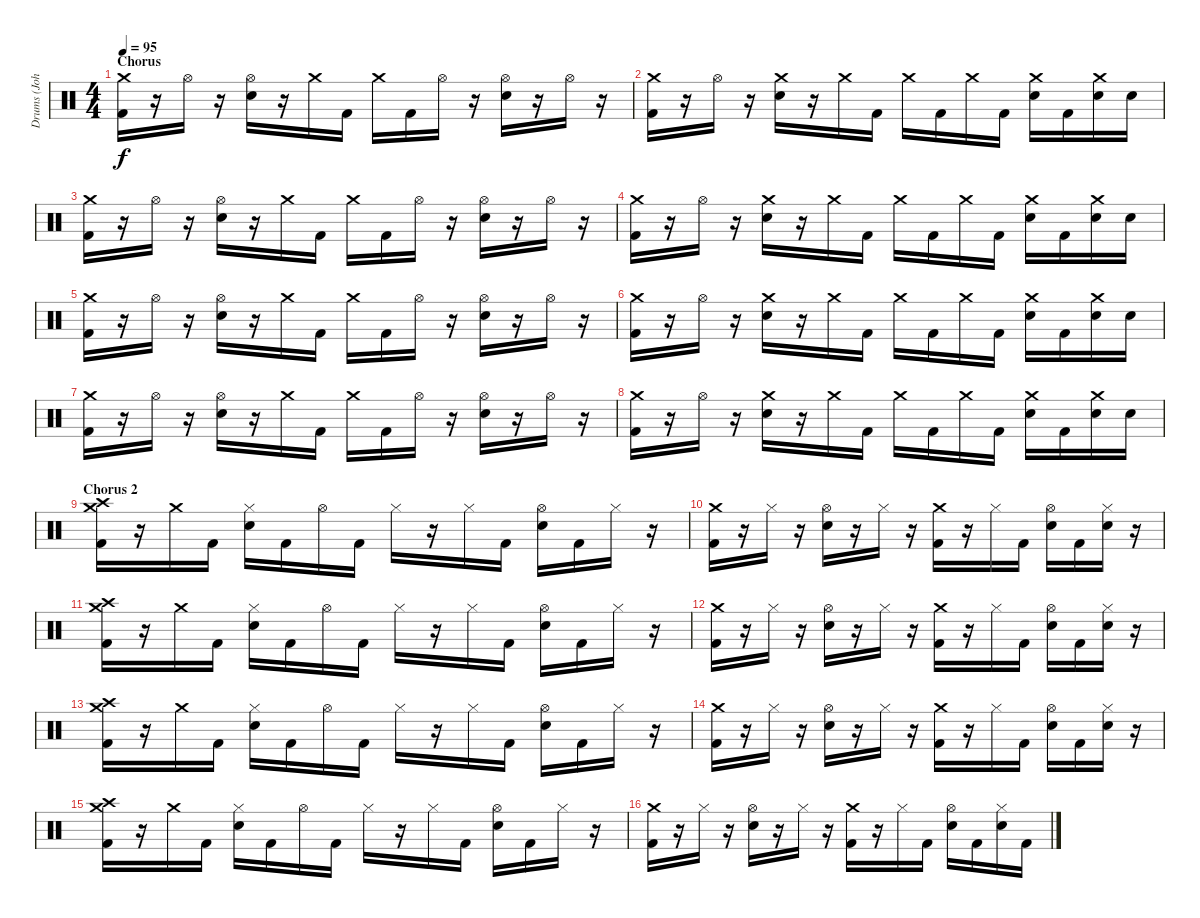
\track ("Drums (John Otto)" "Drums (Joh") {instrument percussion}
\staff {score}
\articulation defaults
\ts (4 4)
\section ("" "Chorus")
\tempo 95
\clef neutral
\ks c
("Crash medium (hit)" "Kick (hit) 2").16{dy f} r.16 "Hi-Hat (open)".16 r.16 ("Hi-Hat (open)" "Electric Snare (hit)").16 r.16 "Crash medium (hit)".16 "Kick (hit) 2".16 "Crash medium (hit)".16 "Kick (hit) 2".16 "Hi-Hat (open)".16 r.16 ("Hi-Hat (open)" "Electric Snare (hit)").16 r.16 "Hi-Hat (open)".16 r.16 |
("Crash medium (hit)" "Kick (hit) 2").16 r.16 "Hi-Hat (open)".16 r.16 ("Crash medium (hit)" "Electric Snare (hit)").16 r.16 "Crash medium (hit)".16 "Kick (hit) 2".16 "Crash medium (hit)".16 "Kick (hit) 2".16 "Crash medium (hit)".16 "Kick (hit) 2".16 ("Crash medium (hit)" "Electric Snare (hit)").16 "Kick (hit) 2".16 ("Crash medium (hit)" "Electric Snare (hit)").16 "Electric Snare (hit)".16 |
("Crash medium (hit)" "Kick (hit) 2").16 r.16 "Hi-Hat (open)".16 r.16 ("Hi-Hat (open)" "Electric Snare (hit)").16 r.16 "Crash medium (hit)".16 "Kick (hit) 2".16 "Crash medium (hit)".16 "Kick (hit) 2".16 "Hi-Hat (open)".16 r.16 ("Hi-Hat (open)" "Electric Snare (hit)").16 r.16 "Hi-Hat (open)".16 r.16 |
("Crash medium (hit)" "Kick (hit) 2").16 r.16 "Hi-Hat (open)".16 r.16 ("Crash medium (hit)" "Electric Snare (hit)").16 r.16 "Crash medium (hit)".16 "Kick (hit) 2".16 "Crash medium (hit)".16 "Kick (hit) 2".16 "Crash medium (hit)".16 "Kick (hit) 2".16 ("Crash medium (hit)" "Electric Snare (hit)").16 "Kick (hit) 2".16 ("Crash medium (hit)" "Electric Snare (hit)").16 "Electric Snare (hit)".16 |
("Crash medium (hit)" "Kick (hit) 2").16 r.16 "Hi-Hat (open)".16 r.16 ("Hi-Hat (open)" "Electric Snare (hit)").16 r.16 "Crash medium (hit)".16 "Kick (hit) 2".16 "Crash medium (hit)".16 "Kick (hit) 2".16 "Hi-Hat (open)".16 r.16 ("Hi-Hat (open)" "Electric Snare (hit)").16 r.16 "Hi-Hat (open)".16 r.16 |
("Crash medium (hit)" "Kick (hit) 2").16 r.16 "Hi-Hat (open)".16 r.16 ("Crash medium (hit)" "Electric Snare (hit)").16 r.16 "Crash medium (hit)".16 "Kick (hit) 2".16 "Crash medium (hit)".16 "Kick (hit) 2".16 "Crash medium (hit)".16 "Kick (hit) 2".16 ("Crash medium (hit)" "Electric Snare (hit)").16 "Kick (hit) 2".16 ("Crash medium (hit)" "Electric Snare (hit)").16 "Electric Snare (hit)".16 |
("Crash medium (hit)" "Kick (hit) 2").16 r.16 "Hi-Hat (open)".16 r.16 ("Hi-Hat (open)" "Electric Snare (hit)").16 r.16 "Crash medium (hit)".16 "Kick (hit) 2".16 "Crash medium (hit)".16 "Kick (hit) 2".16 "Hi-Hat (open)".16 r.16 ("Hi-Hat (open)" "Electric Snare (hit)").16 r.16 "Hi-Hat (open)".16 r.16 |
("Crash medium (hit)" "Kick (hit) 2").16 r.16 "Hi-Hat (open)".16 r.16 ("Crash medium (hit)" "Electric Snare (hit)").16 r.16 "Crash medium (hit)".16 "Kick (hit) 2".16 "Crash medium (hit)".16 "Kick (hit) 2".16 "Crash medium (hit)".16 "Kick (hit) 2".16 ("Crash medium (hit)" "Electric Snare (hit)").16 "Kick (hit) 2".16 ("Crash medium (hit)" "Electric Snare (hit)").16 "Electric Snare (hit)".16 |
\section ("" "Chorus 2")
("Crash medium (hit)" "Crash high (hit)" "Kick (hit) 2").16 r.16 "Crash medium (hit)".16 "Kick (hit) 2".16 ("Hi-Hat (closed)" "Electric Snare (hit)").16 "Kick (hit) 2".16 "Hi-Hat (open)".16 "Kick (hit) 2".16 "Hi-Hat (closed)".16 r.16 "Hi-Hat (closed)".16 "Kick (hit) 2".16 ("Hi-Hat (open)" "Electric Snare (hit)").16 "Kick (hit) 2".16 "Hi-Hat (closed)".16 r.16 |
("Crash medium (hit)" "Kick (hit) 2").16 r.16 "Hi-Hat (closed)".16 r.16 ("Hi-Hat (open)" "Electric Snare (hit)").16 r.16 "Hi-Hat (closed)".16 r.16 ("Crash medium (hit)" "Kick (hit) 2").16 r.16 "Hi-Hat (closed)".16 "Kick (hit) 2".16 ("Hi-Hat (open)" "Electric Snare (hit)").16 "Kick (hit) 2".16 ("Hi-Hat (closed)" "Electric Snare (hit)").16 r.16 |
("Crash medium (hit)" "Crash high (hit)" "Kick (hit) 2").16 r.16 "Crash medium (hit)".16 "Kick (hit) 2".16 ("Hi-Hat (closed)" "Electric Snare (hit)").16 "Kick (hit) 2".16 "Hi-Hat (open)".16 "Kick (hit) 2".16 "Hi-Hat (closed)".16 r.16 "Hi-Hat (closed)".16 "Kick (hit) 2".16 ("Hi-Hat (open)" "Electric Snare (hit)").16 "Kick (hit) 2".16 "Hi-Hat (closed)".16 r.16 |
("Crash medium (hit)" "Kick (hit) 2").16 r.16 "Hi-Hat (closed)".16 r.16 ("Hi-Hat (open)" "Electric Snare (hit)").16 r.16 "Hi-Hat (closed)".16 r.16 ("Crash medium (hit)" "Kick (hit) 2").16 r.16 "Hi-Hat (closed)".16 "Kick (hit) 2".16 ("Hi-Hat (open)" "Electric Snare (hit)").16 "Kick (hit) 2".16 ("Hi-Hat (closed)" "Electric Snare (hit)").16 r.16 |
("Crash medium (hit)" "Crash high (hit)" "Kick (hit) 2").16 r.16 "Crash medium (hit)".16 "Kick (hit) 2".16 ("Hi-Hat (closed)" "Electric Snare (hit)").16 "Kick (hit) 2".16 "Hi-Hat (open)".16 "Kick (hit) 2".16 "Hi-Hat (closed)".16 r.16 "Hi-Hat (closed)".16 "Kick (hit) 2".16 ("Hi-Hat (open)" "Electric Snare (hit)").16 "Kick (hit) 2".16 "Hi-Hat (closed)".16 r.16 |
("Crash medium (hit)" "Kick (hit) 2").16 r.16 "Hi-Hat (closed)".16 r.16 ("Hi-Hat (open)" "Electric Snare (hit)").16 r.16 "Hi-Hat (closed)".16 r.16 ("Crash medium (hit)" "Kick (hit) 2").16 r.16 "Hi-Hat (closed)".16 "Kick (hit) 2".16 ("Hi-Hat (open)" "Electric Snare (hit)").16 "Kick (hit) 2".16 ("Hi-Hat (closed)" "Electric Snare (hit)").16 r.16 |
("Crash medium (hit)" "Crash high (hit)" "Kick (hit) 2").16 r.16 "Crash medium (hit)".16 "Kick (hit) 2".16 ("Hi-Hat (closed)" "Electric Snare (hit)").16 "Kick (hit) 2".16 "Hi-Hat (open)".16 "Kick (hit) 2".16 "Hi-Hat (closed)".16 r.16 "Hi-Hat (closed)".16 "Kick (hit) 2".16 ("Hi-Hat (open)" "Electric Snare (hit)").16 "Kick (hit) 2".16 "Hi-Hat (closed)".16 r.16 |
("Crash medium (hit)" "Kick (hit) 2").16 r.16 "Hi-Hat (closed)".16 r.16 ("Hi-Hat (open)" "Electric Snare (hit)").16 r.16 "Hi-Hat (closed)".16 r.16 ("Crash medium (hit)" "Kick (hit) 2").16 r.16 "Hi-Hat (closed)".16 "Kick (hit) 2".16 ("Hi-Hat (open)" "Electric Snare (hit)").16 "Kick (hit) 2".16 ("Hi-Hat (closed)" "Electric Snare (hit)").16 "Kick (hit) 2".16
